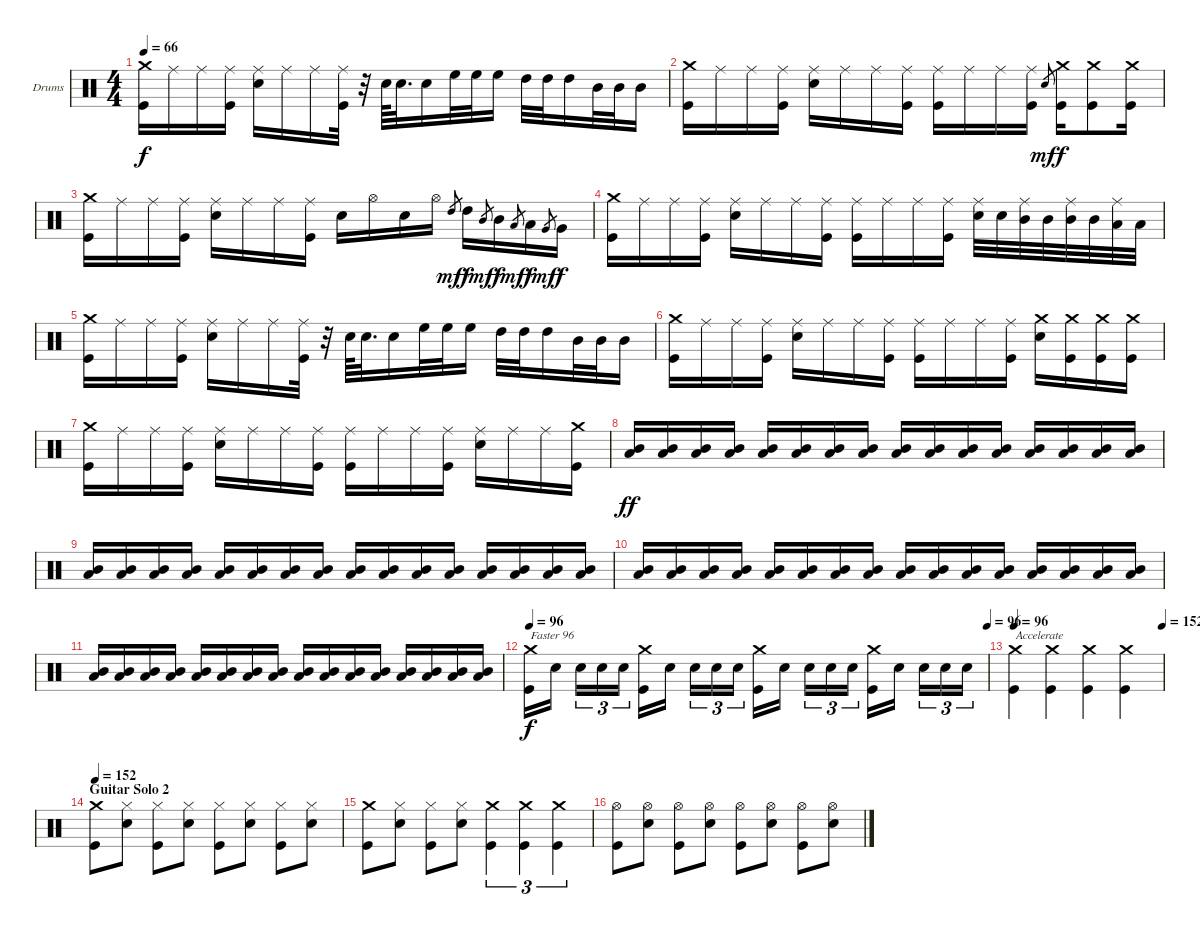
\bracketExtendMode groupsimilarinstruments
\firstSystemTrackNameOrientation horizontal
\otherSystemsTrackNameOrientation horizontal
\track ("Drumkit" "Drums") {instrument percussion}
\staff {score}
\articulation defaults
\ts (4 4)
\tempo 66
\clef neutral
\ks c
("Crash medium (hit)" "Kick (hit)").16{dy f} "Ride (middle)".16 "Ride (middle)".16 ("Ride (middle)" "Kick (hit)").16 ("Ride (middle)" "Snare (hit) 2").16 "Ride (middle)".16 "Ride (middle)".16 ("Ride (middle)" "Kick (hit)").32 r.32 "Snare (hit) 2".64 "Snare (hit) 2".32{d} "Snare (hit) 2".16 "High Floor Tom (hit)".32 "High Floor Tom (hit)".32 "High Floor Tom (hit)".16 "High Tom (hit)".32 "High Tom (hit)".32 "High Tom (hit)".16 "Mid Tom (hit)".32 "Mid Tom (hit)".32 "Mid Tom (hit)".16 |
("Crash medium (hit)" "Kick (hit)").16 "Ride (middle)".16 "Ride (middle)".16 ("Ride (middle)" "Kick (hit)").16 ("Ride (middle)" "Snare (hit) 2").16 "Ride (middle)".16 "Ride (middle)".16 ("Ride (middle)" "Kick (hit)").16 ("Ride (middle)" "Kick (hit)").16 "Ride (middle)".16 "Ride (middle)".16 ("Ride (middle)" "Kick (hit)").16 "Snare (hit) 2".8{gr dy mf} ("Crash medium (hit)" "Kick (hit)").16{dy f} ("Crash medium (hit)" "Kick (hit)").8 ("Crash medium (hit)" "Kick (hit)").16 |
("Crash medium (hit)" "Kick (hit)").16 "Ride (middle)".16 "Ride (middle)".16 ("Ride (middle)" "Kick (hit)").16 ("Ride (middle)" "Snare (hit) 2").16 "Ride (middle)".16 "Ride (middle)".16 ("Ride (middle)" "Kick (hit)").16 "Snare (hit) 2".16 "Hi-Hat (open)".16 "Snare (hit) 2".16 "Hi-Hat (open)".16 "High Tom (hit)".8{gr dy mf} "High Tom (hit)".16{dy f} "Mid Tom (hit)".8{gr dy mf} "Mid Tom (hit)".16{dy f} "Low Tom (hit)".8{gr dy mf} "Low Tom (hit)".16{dy f} "Very Low Tom (hit)".8{gr dy mf} "Very Low Tom (hit)".16{dy f} |
("Crash medium (hit)" "Kick (hit)").16 "Ride (middle)".16 "Ride (middle)".16 ("Ride (middle)" "Kick (hit)").16 ("Ride (middle)" "Snare (hit) 2").16 "Ride (middle)".16 "Ride (middle)".16 ("Ride (middle)" "Kick (hit)").16 ("Ride (middle)" "Kick (hit)").16 "Ride (middle)".16 "Ride (middle)".16 ("Ride (middle)" "Kick (hit)").16 ("Ride (middle)" "Snare (hit) 2").32 "Snare (hit) 2".32 ("Ride (middle)" "Mid Tom (hit)").32 "Mid Tom (hit)".32 ("Ride (middle)" "Mid Tom (hit)").32 "Mid Tom (hit)".32 ("Ride (middle)" "Low Tom (hit)").32 "Low Tom (hit)".32 |
("Crash medium (hit)" "Kick (hit)").16 "Ride (middle)".16 "Ride (middle)".16 ("Ride (middle)" "Kick (hit)").16 ("Ride (middle)" "Snare (hit) 2").16 "Ride (middle)".16 "Ride (middle)".16 ("Ride (middle)" "Kick (hit)").32 r.32 "Snare (hit) 2".64 "Snare (hit) 2".32{d} "Snare (hit) 2".16 "High Floor Tom (hit)".32 "High Floor Tom (hit)".32 "High Floor Tom (hit)".16 "High Tom (hit)".32 "High Tom (hit)".32 "High Tom (hit)".16 "Mid Tom (hit)".32 "Mid Tom (hit)".32 "Mid Tom (hit)".16 |
("Crash medium (hit)" "Kick (hit)").16 "Ride (middle)".16 "Ride (middle)".16 ("Ride (middle)" "Kick (hit)").16 ("Ride (middle)" "Snare (hit) 2").16 "Ride (middle)".16 "Ride (middle)".16 ("Ride (middle)" "Kick (hit)").16 ("Ride (middle)" "Kick (hit)").16 "Ride (middle)".16 "Ride (middle)".16 ("Ride (middle)" "Kick (hit)").16 ("Crash medium (hit)" "Snare (hit) 2").16 ("Crash medium (hit)" "Kick (hit)").16 ("Crash medium (hit)" "Kick (hit)").16 ("Crash medium (hit)" "Kick (hit)").16 |
("Crash medium (hit)" "Kick (hit)").16 "Ride (middle)".16 "Ride (middle)".16 ("Ride (middle)" "Kick (hit)").16 ("Ride (middle)" "Snare (hit) 2").16 "Ride (middle)".16 "Ride (middle)".16 ("Ride (middle)" "Kick (hit)").16 ("Ride (middle)" "Kick (hit)").16 "Ride (middle)".16 "Ride (middle)".16 ("Ride (middle)" "Kick (hit)").16 ("Ride (middle)" "Snare (hit) 2").16 "Ride (middle)".16 "Ride (middle)".16 ("Crash medium (hit)" "Kick (hit)").16 |
("Low Tom (hit)" "Mid Tom (hit)").16{dy ff} ("Low Tom (hit)" "Mid Tom (hit)").16 ("Low Tom (hit)" "Mid Tom (hit)").16 ("Low Tom (hit)" "Mid Tom (hit)").16 ("Low Tom (hit)" "Mid Tom (hit)").16 ("Low Tom (hit)" "Mid Tom (hit)").16 ("Low Tom (hit)" "Mid Tom (hit)").16 ("Low Tom (hit)" "Mid Tom (hit)").16 ("Low Tom (hit)" "Mid Tom (hit)").16 ("Low Tom (hit)" "Mid Tom (hit)").16 ("Low Tom (hit)" "Mid Tom (hit)").16 ("Low Tom (hit)" "Mid Tom (hit)").16 ("Low Tom (hit)" "Mid Tom (hit)").16 ("Low Tom (hit)" "Mid Tom (hit)").16 ("Low Tom (hit)" "Mid Tom (hit)").16 ("Low Tom (hit)" "Mid Tom (hit)").16 |
("Low Tom (hit)" "Mid Tom (hit)").16 ("Low Tom (hit)" "Mid Tom (hit)").16 ("Low Tom (hit)" "Mid Tom (hit)").16 ("Low Tom (hit)" "Mid Tom (hit)").16 ("Low Tom (hit)" "Mid Tom (hit)").16 ("Low Tom (hit)" "Mid Tom (hit)").16 ("Low Tom (hit)" "Mid Tom (hit)").16 ("Low Tom (hit)" "Mid Tom (hit)").16 ("Low Tom (hit)" "Mid Tom (hit)").16 ("Low Tom (hit)" "Mid Tom (hit)").16 ("Low Tom (hit)" "Mid Tom (hit)").16 ("Low Tom (hit)" "Mid Tom (hit)").16 ("Low Tom (hit)" "Mid Tom (hit)").16 ("Low Tom (hit)" "Mid Tom (hit)").16 ("Low Tom (hit)" "Mid Tom (hit)").16 ("Low Tom (hit)" "Mid Tom (hit)").16 |
("Low Tom (hit)" "Mid Tom (hit)").16 ("Low Tom (hit)" "Mid Tom (hit)").16 ("Low Tom (hit)" "Mid Tom (hit)").16 ("Low Tom (hit)" "Mid Tom (hit)").16 ("Low Tom (hit)" "Mid Tom (hit)").16 ("Low Tom (hit)" "Mid Tom (hit)").16 ("Low Tom (hit)" "Mid Tom (hit)").16 ("Low Tom (hit)" "Mid Tom (hit)").16 ("Low Tom (hit)" "Mid Tom (hit)").16 ("Low Tom (hit)" "Mid Tom (hit)").16 ("Low Tom (hit)" "Mid Tom (hit)").16 ("Low Tom (hit)" "Mid Tom (hit)").16 ("Low Tom (hit)" "Mid Tom (hit)").16 ("Low Tom (hit)" "Mid Tom (hit)").16 ("Low Tom (hit)" "Mid Tom (hit)").16 ("Low Tom (hit)" "Mid Tom (hit)").16 |
("Low Tom (hit)" "Mid Tom (hit)").16 ("Low Tom (hit)" "Mid Tom (hit)").16 ("Low Tom (hit)" "Mid Tom (hit)").16 ("Low Tom (hit)" "Mid Tom (hit)").16 ("Low Tom (hit)" "Mid Tom (hit)").16 ("Low Tom (hit)" "Mid Tom (hit)").16 ("Low Tom (hit)" "Mid Tom (hit)").16 ("Low Tom (hit)" "Mid Tom (hit)").16 ("Low Tom (hit)" "Mid Tom (hit)").16 ("Low Tom (hit)" "Mid Tom (hit)").16 ("Low Tom (hit)" "Mid Tom (hit)").16 ("Low Tom (hit)" "Mid Tom (hit)").16 ("Low Tom (hit)" "Mid Tom (hit)").16 ("Low Tom (hit)" "Mid Tom (hit)").16 ("Low Tom (hit)" "Mid Tom (hit)").16 ("Low Tom (hit)" "Mid Tom (hit)").16 |
\tempo 96
\tempo (96 1)
("Crash medium (hit)" "Kick (hit)").16{txt "Faster 96" dy f} "Snare (hit) 2".16 "Snare (hit) 2".16{tu (3 2)} "Snare (hit) 2".16{tu (3 2)} "Snare (hit) 2".16{tu (3 2)} ("Crash medium (hit)" "Kick (hit)").16 "Snare (hit) 2".16 "Snare (hit) 2".16{tu (3 2)} "Snare (hit) 2".16{tu (3 2)} "Snare (hit) 2".16{tu (3 2)} ("Crash medium (hit)" "Kick (hit)").16 "Snare (hit) 2".16 "Snare (hit) 2".16{tu (3 2)} "Snare (hit) 2".16{tu (3 2)} "Snare (hit) 2".16{tu (3 2)} ("Crash medium (hit)" "Kick (hit)").16 "Snare (hit) 2".16 "Snare (hit) 2".16{tu (3 2)} "Snare (hit) 2".16{tu (3 2)} "Snare (hit) 2".16{tu (3 2)} |
\tempo 96
\tempo (152 1)
("Crash medium (hit)" "Kick (hit)").4{txt "Accelerate"} ("Crash medium (hit)" "Kick (hit)").4 ("Crash medium (hit)" "Kick (hit)").4 ("Crash medium (hit)" "Kick (hit)").4 |
\section ("" "Guitar Solo 2")
\tempo 152
("Crash medium (hit)" "Kick (hit)").8 ("Hi-Hat (closed)" "Snare (hit) 2").8 ("Hi-Hat (closed)" "Kick (hit)").8 ("Hi-Hat (closed)" "Snare (hit) 2").8 ("Hi-Hat (closed)" "Kick (hit)").8 ("Hi-Hat (closed)" "Snare (hit) 2").8 ("Hi-Hat (closed)" "Kick (hit)").8 ("Hi-Hat (closed)" "Snare (hit) 2").8 |
("Crash medium (hit)" "Kick (hit)").8 ("Hi-Hat (closed)" "Snare (hit) 2").8 ("Hi-Hat (closed)" "Kick (hit)").8 ("Hi-Hat (closed)" "Snare (hit) 2").8 ("Crash medium (hit)" "Kick (hit)").4{tu (3 2)} ("Crash medium (hit)" "Kick (hit)").4{tu (3 2)} ("Crash medium (hit)" "Kick (hit)").4{tu (3 2)} |
("Hi-Hat (open)" "Kick (hit)").8 ("Hi-Hat (open)" "Snare (hit) 2").8 ("Hi-Hat (open)" "Kick (hit)").8 ("Hi-Hat (open)" "Snare (hit) 2").8 ("Hi-Hat (open)" "Kick (hit)").8 ("Hi-Hat (open)" "Snare (hit) 2").8 ("Hi-Hat (open)" "Kick (hit)").8 ("Hi-Hat (open)" "Snare (hit) 2").8
